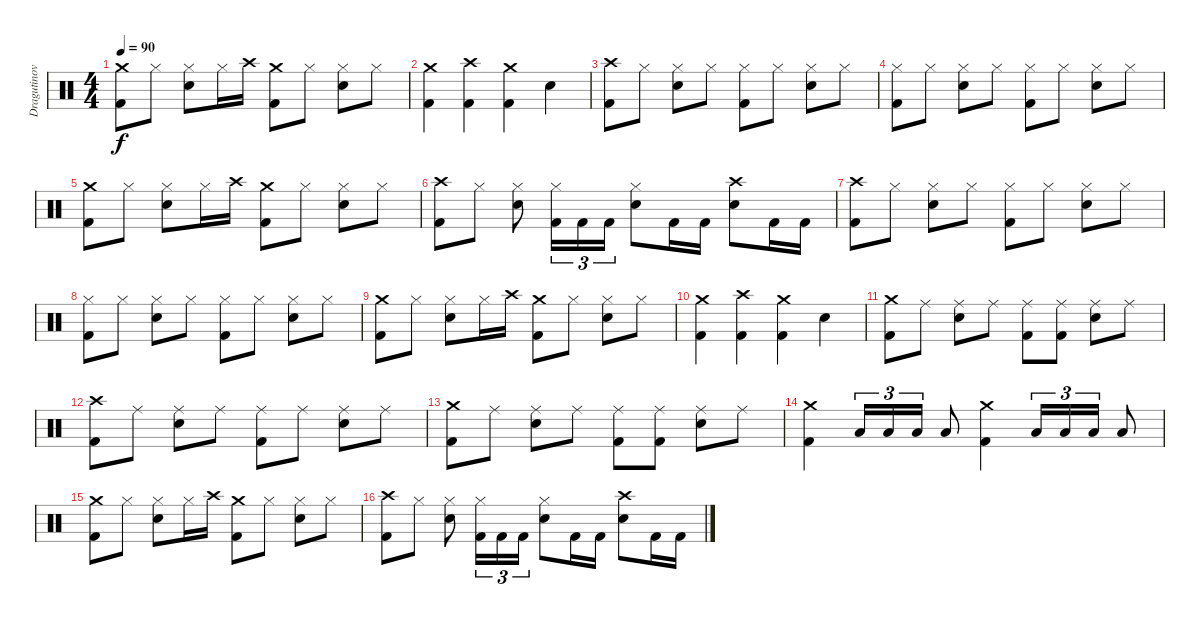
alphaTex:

\track ("Dragutinovic" "Dragutinov") {instrument percussion}
\staff {score}
\articulation defaults
\ts (4 4)
\tempo 90
\clef neutral
\ks c
("Crash medium (hit)" "Kick (hit) 2").8{dy f} "Hi-Hat (closed)".8 ("Hi-Hat (closed)" "Electric Snare (hit)").8 "Hi-Hat (closed)".16 "Crash high (hit)".16 ("Crash medium (hit)" "Kick (hit) 2").8 "Hi-Hat (closed)".8 ("Hi-Hat (closed)" "Electric Snare (hit)").8 "Hi-Hat (closed)".8 |
("Crash medium (hit)" "Kick (hit) 2").4 ("Crash high (hit)" "Kick (hit) 2").4 ("Crash medium (hit)" "Kick (hit) 2").4 "Electric Snare (hit)".4 |
("Crash high (hit)" "Kick (hit) 2").8 "Hi-Hat (closed)".8 ("Hi-Hat (closed)" "Electric Snare (hit)").8 "Hi-Hat (closed)".8 ("Hi-Hat (closed)" "Kick (hit) 2").8 "Hi-Hat (closed)".8 ("Hi-Hat (closed)" "Electric Snare (hit)").8 "Hi-Hat (closed)".8 |
("Hi-Hat (closed)" "Kick (hit) 2").8 "Hi-Hat (closed)".8 ("Hi-Hat (closed)" "Electric Snare (hit)").8 "Hi-Hat (closed)".8 ("Hi-Hat (closed)" "Kick (hit) 2").8 "Hi-Hat (closed)".8 ("Hi-Hat (closed)" "Electric Snare (hit)").8 "Hi-Hat (closed)".8 |
("Crash medium (hit)" "Kick (hit) 2").8 "Hi-Hat (closed)".8 ("Hi-Hat (closed)" "Electric Snare (hit)").8 "Hi-Hat (closed)".16 "Crash high (hit)".16 ("Crash medium (hit)" "Kick (hit) 2").8 "Hi-Hat (closed)".8 ("Hi-Hat (closed)" "Electric Snare (hit)").8 "Hi-Hat (closed)".8 |
("Crash high (hit)" "Kick (hit) 2").8 "Hi-Hat (closed)".8 ("Hi-Hat (closed)" "Electric Snare (hit)").8 ("Hi-Hat (closed)" "Kick (hit) 2").16{tu (3 2)} "Kick (hit) 2".16{tu (3 2)} "Kick (hit) 2".16{tu (3 2)} ("Hi-Hat (closed)" "Electric Snare (hit)").8 "Kick (hit) 2".16 "Kick (hit) 2".16 ("Crash high (hit)" "Electric Snare (hit)").8 "Kick (hit) 2".16 "Kick (hit) 2".16 |
("Crash high (hit)" "Kick (hit) 2").8 "Hi-Hat (closed)".8 ("Hi-Hat (closed)" "Electric Snare (hit)").8 "Hi-Hat (closed)".8 ("Hi-Hat (closed)" "Kick (hit) 2").8 "Hi-Hat (closed)".8 ("Hi-Hat (closed)" "Electric Snare (hit)").8 "Hi-Hat (closed)".8 |
("Hi-Hat (closed)" "Kick (hit) 2").8 "Hi-Hat (closed)".8 ("Hi-Hat (closed)" "Electric Snare (hit)").8 "Hi-Hat (closed)".8 ("Hi-Hat (closed)" "Kick (hit) 2").8 "Hi-Hat (closed)".8 ("Hi-Hat (closed)" "Electric Snare (hit)").8 "Hi-Hat (closed)".8 |
("Crash medium (hit)" "Kick (hit) 2").8 "Hi-Hat (closed)".8 ("Hi-Hat (closed)" "Electric Snare (hit)").8 "Hi-Hat (closed)".16 "Crash high (hit)".16 ("Crash medium (hit)" "Kick (hit) 2").8 "Hi-Hat (closed)".8 ("Hi-Hat (closed)" "Electric Snare (hit)").8 "Hi-Hat (closed)".8 |
("Crash medium (hit)" "Kick (hit) 2").4 ("Crash high (hit)" "Kick (hit) 2").4 ("Crash medium (hit)" "Kick (hit) 2").4 "Electric Snare (hit)".4 |
("Crash medium (hit)" "Kick (hit) 2").8 "Ride (middle)".8 ("Ride (middle)" "Electric Snare (hit)").8 "Ride (middle)".8 ("Ride (middle)" "Kick (hit) 2").8 ("Ride (middle)" "Kick (hit) 2").8 ("Ride (middle)" "Electric Snare (hit)").8 "Ride (middle)".8 |
("Crash high (hit)" "Kick (hit) 2").8 "Ride (middle)".8 ("Ride (middle)" "Electric Snare (hit)").8 "Ride (middle)".8 ("Ride (middle)" "Kick (hit) 2").8 "Ride (middle)".8 ("Ride (middle)" "Electric Snare (hit)").8 "Ride (middle)".8 |
("Crash medium (hit)" "Kick (hit) 2").8 "Ride (middle)".8 ("Ride (middle)" "Electric Snare (hit)").8 "Ride (middle)".8 ("Ride (middle)" "Kick (hit) 2").8 ("Ride (middle)" "Kick (hit) 2").8 ("Ride (middle)" "Electric Snare (hit)").8 "Ride (middle)".8 |
("Crash medium (hit)" "Kick (hit) 2").4 "Low Tom (hit)".16{tu (3 2)} "Low Tom (hit)".16{tu (3 2)} "Low Tom (hit)".16{tu (3 2)} "Low Tom (hit)".8 ("Crash medium (hit)" "Kick (hit) 2").4 "Low Tom (hit)".16{tu (3 2)} "Low Tom (hit)".16{tu (3 2)} "Low Tom (hit)".16{tu (3 2)} "Low Tom (hit)".8 |
("Crash medium (hit)" "Kick (hit) 2").8 "Hi-Hat (closed)".8 ("Hi-Hat (closed)" "Electric Snare (hit)").8 "Hi-Hat (closed)".16 "Crash high (hit)".16 ("Crash medium (hit)" "Kick (hit) 2").8 "Hi-Hat (closed)".8 ("Hi-Hat (closed)" "Electric Snare (hit)").8 "Hi-Hat (closed)".8 |
("Crash high (hit)" "Kick (hit) 2").8 "Hi-Hat (closed)".8 ("Hi-Hat (closed)" "Electric Snare (hit)").8 ("Hi-Hat (closed)" "Kick (hit) 2").16{tu (3 2)} "Kick (hit) 2".16{tu (3 2)} "Kick (hit) 2".16{tu (3 2)} ("Hi-Hat (closed)" "Electric Snare (hit)").8 "Kick (hit) 2".16 "Kick (hit) 2".16 ("Crash high (hit)" "Electric Snare (hit)").8 "Kick (hit) 2".16 "Kick (hit) 2".16
